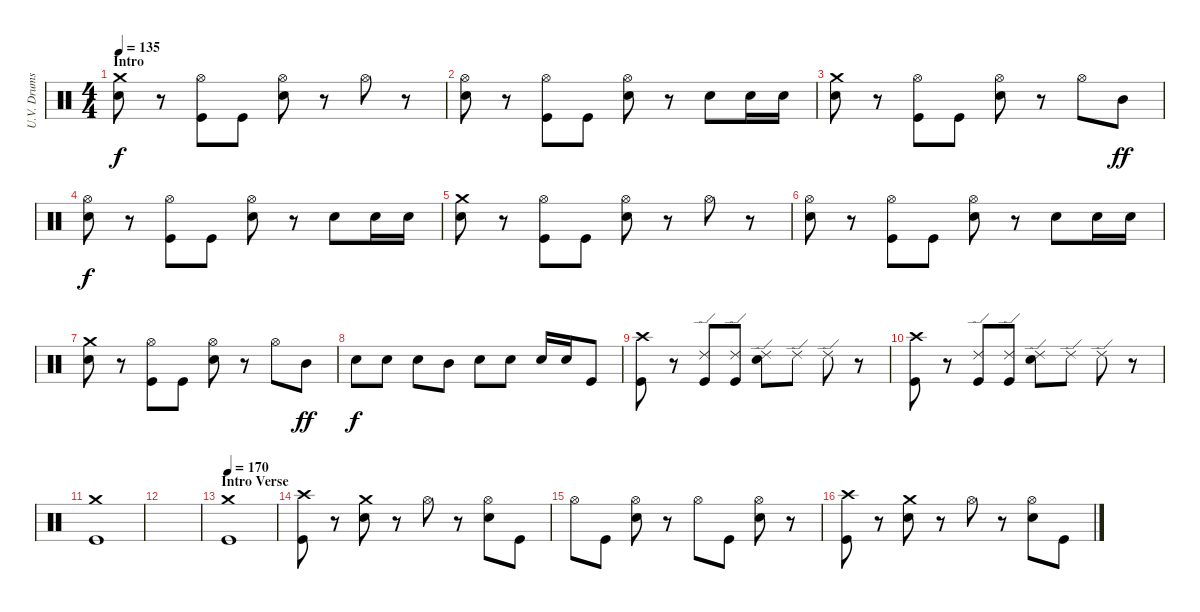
\track ("U.V. Drums" "U.V. Drums") {instrument percussion}
\staff {score}
\articulation defaults
\ts (4 4)
\section ("" "Intro")
\tempo 135
\clef neutral
\ks c
("Crash medium (hit)" "Electric Snare (hit)").8{dy f} r.8 ("Hi-Hat (open)" "Kick (hit)").8 "Kick (hit)".8 ("Hi-Hat (open)" "Electric Snare (hit)").8 r.8 "Hi-Hat (open)".8 r.8 |
("Hi-Hat (open)" "Electric Snare (hit)").8 r.8 ("Hi-Hat (open)" "Kick (hit)").8 "Kick (hit)".8 ("Hi-Hat (open)" "Electric Snare (hit)").8 r.8 "Electric Snare (hit)".8 "Electric Snare (hit)".16 "Electric Snare (hit)".16 |
("Crash medium (hit)" "Electric Snare (hit)").8 r.8 ("Hi-Hat (open)" "Kick (hit)").8 "Kick (hit)".8 ("Hi-Hat (open)" "Electric Snare (hit)").8 r.8 "Hi-Hat (open)".8 "Mid Tom (hit)".8{dy ff} |
("Hi-Hat (open)" "Electric Snare (hit)").8{dy f} r.8 ("Hi-Hat (open)" "Kick (hit)").8 "Kick (hit)".8 ("Hi-Hat (open)" "Electric Snare (hit)").8 r.8 "Electric Snare (hit)".8 "Electric Snare (hit)".16 "Electric Snare (hit)".16 |
("Crash medium (hit)" "Electric Snare (hit)").8 r.8 ("Hi-Hat (open)" "Kick (hit)").8 "Kick (hit)".8 ("Hi-Hat (open)" "Electric Snare (hit)").8 r.8 "Hi-Hat (open)".8 r.8 |
("Hi-Hat (open)" "Electric Snare (hit)").8 r.8 ("Hi-Hat (open)" "Kick (hit)").8 "Kick (hit)".8 ("Hi-Hat (open)" "Electric Snare (hit)").8 r.8 "Electric Snare (hit)".8 "Electric Snare (hit)".16 "Electric Snare (hit)".16 |
("Crash medium (hit)" "Electric Snare (hit)").8 r.8 ("Hi-Hat (open)" "Kick (hit)").8 "Kick (hit)".8 ("Hi-Hat (open)" "Electric Snare (hit)").8 r.8 "Hi-Hat (open)".8 "Mid Tom (hit)".8{dy ff} |
"Electric Snare (hit)".8{dy f} "Electric Snare (hit)".8 "Electric Snare (hit)".8 "Mid Tom (hit)".8 "Electric Snare (hit)".8 "Electric Snare (hit)".8 "Electric Snare (hit)".16 "Electric Snare (hit)".16 "Kick (hit)".8 |
("Crash high (hit)" "Kick (hit)").8 r.8 ("Ride (edge) 2" "Kick (hit)").8 ("Ride (edge) 2" "Kick (hit)").8 ("Ride (edge) 2" "Electric Snare (hit)").8 "Ride (edge) 2".8 "Ride (edge) 2".8 r.8 |
("Crash high (hit)" "Kick (hit)").8 r.8 ("Ride (edge) 2" "Kick (hit)").8 ("Ride (edge) 2" "Kick (hit)").8 ("Ride (edge) 2" "Electric Snare (hit)").8 "Ride (edge) 2".8 "Ride (edge) 2".8 r.8 |
("Crash medium (hit)" "Kick (hit)").1 |
|
\section ("" "Intro Verse")
\tempo 170
("Crash medium (hit)" "Kick (hit)").1 |
("Crash high (hit)" "Kick (hit)").8 r.8 ("Crash medium (hit)" "Electric Snare (hit)").8 r.8 "Hi-Hat (open)".8 r.8 ("Hi-Hat (open)" "Electric Snare (hit)").8 "Kick (hit)".8 |
"Hi-Hat (open)".8 "Kick (hit)".8 ("Hi-Hat (open)" "Electric Snare (hit)").8 r.8 "Hi-Hat (open)".8 "Kick (hit)".8 ("Hi-Hat (open)" "Electric Snare (hit)").8 r.8 |
("Crash high (hit)" "Kick (hit)").8 r.8 ("Crash medium (hit)" "Electric Snare (hit)").8 r.8 "Hi-Hat (open)".8 r.8 ("Hi-Hat (open)" "Electric Snare (hit)").8 "Kick (hit)".8
